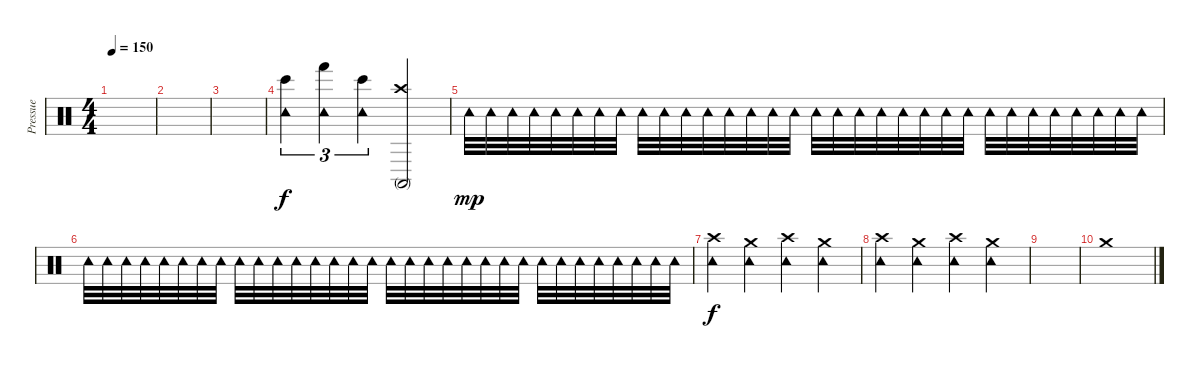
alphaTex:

\track ("Pressue" "Pressue") {instrument percussion}
\staff {score}
\articulation defaults
\ts (4 4)
\tempo 150
\clef neutral
\ks c
|
|
|
("Tambourine (hit)" "Bongo High (hit)").4{tu (3 2)} ("Tambourine (hit)" "Hand (hit)").4{tu (3 2)} ("Tambourine (hit)" "Bongo High (hit)").4{tu (3 2)} ("Crash high (hit)" "Conga high (mute)").2 |
"Tambourine (hit)".32{dy mp} "Tambourine (hit)".32 "Tambourine (hit)".32 "Tambourine (hit)".32 "Tambourine (hit)".32 "Tambourine (hit)".32 "Tambourine (hit)".32 "Tambourine (hit)".32 "Tambourine (hit)".32 "Tambourine (hit)".32 "Tambourine (hit)".32 "Tambourine (hit)".32 "Tambourine (hit)".32 "Tambourine (hit)".32 "Tambourine (hit)".32 "Tambourine (hit)".32 "Tambourine (hit)".32 "Tambourine (hit)".32 "Tambourine (hit)".32 "Tambourine (hit)".32 "Tambourine (hit)".32 "Tambourine (hit)".32 "Tambourine (hit)".32 "Tambourine (hit)".32 "Tambourine (hit)".32 "Tambourine (hit)".32 "Tambourine (hit)".32 "Tambourine (hit)".32 "Tambourine (hit)".32 "Tambourine (hit)".32 "Tambourine (hit)".32 "Tambourine (hit)".32 |
"Tambourine (hit)".32 "Tambourine (hit)".32 "Tambourine (hit)".32 "Tambourine (hit)".32 "Tambourine (hit)".32 "Tambourine (hit)".32 "Tambourine (hit)".32 "Tambourine (hit)".32 "Tambourine (hit)".32 "Tambourine (hit)".32 "Tambourine (hit)".32 "Tambourine (hit)".32 "Tambourine (hit)".32 "Tambourine (hit)".32 "Tambourine (hit)".32 "Tambourine (hit)".32 "Tambourine (hit)".32 "Tambourine (hit)".32 "Tambourine (hit)".32 "Tambourine (hit)".32 "Tambourine (hit)".32 "Tambourine (hit)".32 "Tambourine (hit)".32 "Tambourine (hit)".32 "Tambourine (hit)".32 "Tambourine (hit)".32 "Tambourine (hit)".32 "Tambourine (hit)".32 "Tambourine (hit)".32 "Tambourine (hit)".32 "Tambourine (hit)".32 "Tambourine (hit)".32 |
("Crash high (hit)" "Tambourine (hit)").4{dy f} ("Crash medium (hit)" "Tambourine (hit)").4 ("Crash high (hit)" "Tambourine (hit)").4 ("Crash medium (hit)" "Tambourine (hit)").4 |
("Crash high (hit)" "Tambourine (hit)").4 ("Crash medium (hit)" "Tambourine (hit)").4 ("Crash high (hit)" "Tambourine (hit)").4 ("Crash medium (hit)" "Tambourine (hit)").4 |
|
"Crash medium (hit)".1
